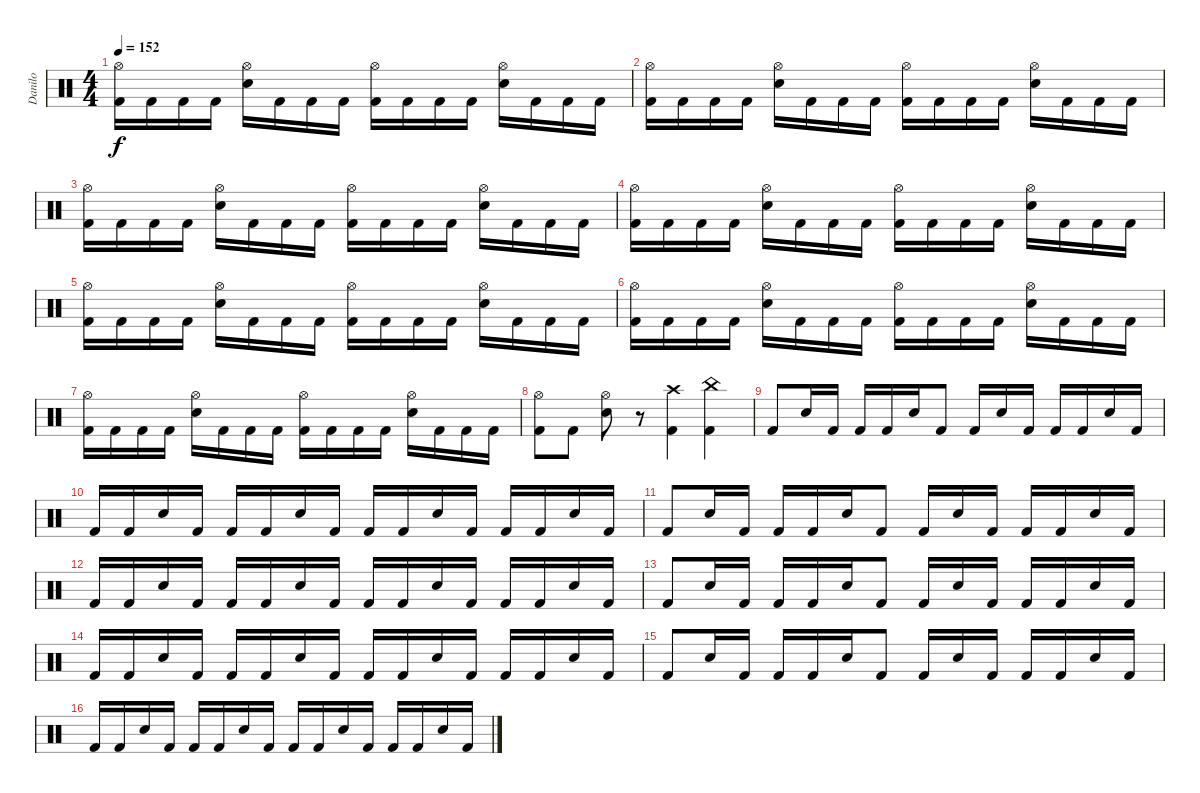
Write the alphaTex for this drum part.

\track ("Danilo" "Danilo") {instrument percussion}
\staff {score}
\articulation defaults
\ts (4 4)
\tempo 152
\clef neutral
\ks c
("Hi-Hat (open)" "Kick (hit) 2").16{dy f} "Kick (hit) 2".16 "Kick (hit) 2".16 "Kick (hit) 2".16 ("Hi-Hat (open)" "Snare (hit) 2").16 "Kick (hit) 2".16 "Kick (hit) 2".16 "Kick (hit) 2".16 ("Hi-Hat (open)" "Kick (hit) 2").16 "Kick (hit) 2".16 "Kick (hit) 2".16 "Kick (hit) 2".16 ("Hi-Hat (open)" "Snare (hit) 2").16 "Kick (hit) 2".16 "Kick (hit) 2".16 "Kick (hit) 2".16 |
("Hi-Hat (open)" "Kick (hit) 2").16 "Kick (hit) 2".16 "Kick (hit) 2".16 "Kick (hit) 2".16 ("Hi-Hat (open)" "Snare (hit) 2").16 "Kick (hit) 2".16 "Kick (hit) 2".16 "Kick (hit) 2".16 ("Hi-Hat (open)" "Kick (hit) 2").16 "Kick (hit) 2".16 "Kick (hit) 2".16 "Kick (hit) 2".16 ("Hi-Hat (open)" "Snare (hit) 2").16 "Kick (hit) 2".16 "Kick (hit) 2".16 "Kick (hit) 2".16 |
("Hi-Hat (open)" "Kick (hit) 2").16 "Kick (hit) 2".16 "Kick (hit) 2".16 "Kick (hit) 2".16 ("Hi-Hat (open)" "Snare (hit) 2").16 "Kick (hit) 2".16 "Kick (hit) 2".16 "Kick (hit) 2".16 ("Hi-Hat (open)" "Kick (hit) 2").16 "Kick (hit) 2".16 "Kick (hit) 2".16 "Kick (hit) 2".16 ("Hi-Hat (open)" "Snare (hit) 2").16 "Kick (hit) 2".16 "Kick (hit) 2".16 "Kick (hit) 2".16 |
("Hi-Hat (open)" "Kick (hit) 2").16 "Kick (hit) 2".16 "Kick (hit) 2".16 "Kick (hit) 2".16 ("Hi-Hat (open)" "Snare (hit) 2").16 "Kick (hit) 2".16 "Kick (hit) 2".16 "Kick (hit) 2".16 ("Hi-Hat (open)" "Kick (hit) 2").16 "Kick (hit) 2".16 "Kick (hit) 2".16 "Kick (hit) 2".16 ("Hi-Hat (open)" "Snare (hit) 2").16 "Kick (hit) 2".16 "Kick (hit) 2".16 "Kick (hit) 2".16 |
("Hi-Hat (open)" "Kick (hit) 2").16 "Kick (hit) 2".16 "Kick (hit) 2".16 "Kick (hit) 2".16 ("Hi-Hat (open)" "Snare (hit) 2").16 "Kick (hit) 2".16 "Kick (hit) 2".16 "Kick (hit) 2".16 ("Hi-Hat (open)" "Kick (hit) 2").16 "Kick (hit) 2".16 "Kick (hit) 2".16 "Kick (hit) 2".16 ("Hi-Hat (open)" "Snare (hit) 2").16 "Kick (hit) 2".16 "Kick (hit) 2".16 "Kick (hit) 2".16 |
("Hi-Hat (open)" "Kick (hit) 2").16 "Kick (hit) 2".16 "Kick (hit) 2".16 "Kick (hit) 2".16 ("Hi-Hat (open)" "Snare (hit) 2").16 "Kick (hit) 2".16 "Kick (hit) 2".16 "Kick (hit) 2".16 ("Hi-Hat (open)" "Kick (hit) 2").16 "Kick (hit) 2".16 "Kick (hit) 2".16 "Kick (hit) 2".16 ("Hi-Hat (open)" "Snare (hit) 2").16 "Kick (hit) 2".16 "Kick (hit) 2".16 "Kick (hit) 2".16 |
("Hi-Hat (open)" "Kick (hit) 2").16 "Kick (hit) 2".16 "Kick (hit) 2".16 "Kick (hit) 2".16 ("Hi-Hat (open)" "Snare (hit) 2").16 "Kick (hit) 2".16 "Kick (hit) 2".16 "Kick (hit) 2".16 ("Hi-Hat (open)" "Kick (hit) 2").16 "Kick (hit) 2".16 "Kick (hit) 2".16 "Kick (hit) 2".16 ("Hi-Hat (open)" "Snare (hit) 2").16 "Kick (hit) 2".16 "Kick (hit) 2".16 "Kick (hit) 2".16 |
("Hi-Hat (open)" "Kick (hit) 2").8 "Kick (hit) 2".8 ("Hi-Hat (open)" "Snare (hit) 2").8 r.8 ("Crash high (hit)" "Kick (hit) 2").4 ("China (hit)" "Kick (hit) 2").4 |
"Kick (hit) 2".8 "Snare (hit) 2".16 "Kick (hit) 2".16 "Kick (hit) 2".16 "Kick (hit) 2".16 "Snare (hit) 2".16 "Kick (hit) 2".8 "Kick (hit) 2".16 "Snare (hit) 2".16 "Kick (hit) 2".16 "Kick (hit) 2".16 "Kick (hit) 2".16 "Snare (hit) 2".16 "Kick (hit) 2".16 |
"Kick (hit) 2".16 "Kick (hit) 2".16 "Snare (hit) 2".16 "Kick (hit) 2".16 "Kick (hit) 2".16 "Kick (hit) 2".16 "Snare (hit) 2".16 "Kick (hit) 2".16 "Kick (hit) 2".16 "Kick (hit) 2".16 "Snare (hit) 2".16 "Kick (hit) 2".16 "Kick (hit) 2".16 "Kick (hit) 2".16 "Snare (hit) 2".16 "Kick (hit) 2".16 |
"Kick (hit) 2".8 "Snare (hit) 2".16 "Kick (hit) 2".16 "Kick (hit) 2".16 "Kick (hit) 2".16 "Snare (hit) 2".16 "Kick (hit) 2".8 "Kick (hit) 2".16 "Snare (hit) 2".16 "Kick (hit) 2".16 "Kick (hit) 2".16 "Kick (hit) 2".16 "Snare (hit) 2".16 "Kick (hit) 2".16 |
"Kick (hit) 2".16 "Kick (hit) 2".16 "Snare (hit) 2".16 "Kick (hit) 2".16 "Kick (hit) 2".16 "Kick (hit) 2".16 "Snare (hit) 2".16 "Kick (hit) 2".16 "Kick (hit) 2".16 "Kick (hit) 2".16 "Snare (hit) 2".16 "Kick (hit) 2".16 "Kick (hit) 2".16 "Kick (hit) 2".16 "Snare (hit) 2".16 "Kick (hit) 2".16 |
"Kick (hit) 2".8 "Snare (hit) 2".16 "Kick (hit) 2".16 "Kick (hit) 2".16 "Kick (hit) 2".16 "Snare (hit) 2".16 "Kick (hit) 2".8 "Kick (hit) 2".16 "Snare (hit) 2".16 "Kick (hit) 2".16 "Kick (hit) 2".16 "Kick (hit) 2".16 "Snare (hit) 2".16 "Kick (hit) 2".16 |
"Kick (hit) 2".16 "Kick (hit) 2".16 "Snare (hit) 2".16 "Kick (hit) 2".16 "Kick (hit) 2".16 "Kick (hit) 2".16 "Snare (hit) 2".16 "Kick (hit) 2".16 "Kick (hit) 2".16 "Kick (hit) 2".16 "Snare (hit) 2".16 "Kick (hit) 2".16 "Kick (hit) 2".16 "Kick (hit) 2".16 "Snare (hit) 2".16 "Kick (hit) 2".16 |
"Kick (hit) 2".8 "Snare (hit) 2".16 "Kick (hit) 2".16 "Kick (hit) 2".16 "Kick (hit) 2".16 "Snare (hit) 2".16 "Kick (hit) 2".8 "Kick (hit) 2".16 "Snare (hit) 2".16 "Kick (hit) 2".16 "Kick (hit) 2".16 "Kick (hit) 2".16 "Snare (hit) 2".16 "Kick (hit) 2".16 |
"Kick (hit) 2".16 "Kick (hit) 2".16 "Snare (hit) 2".16 "Kick (hit) 2".16 "Kick (hit) 2".16 "Kick (hit) 2".16 "Snare (hit) 2".16 "Kick (hit) 2".16 "Kick (hit) 2".16 "Kick (hit) 2".16 "Snare (hit) 2".16 "Kick (hit) 2".16 "Kick (hit) 2".16 "Kick (hit) 2".16 "Snare (hit) 2".16 "Kick (hit) 2".16
